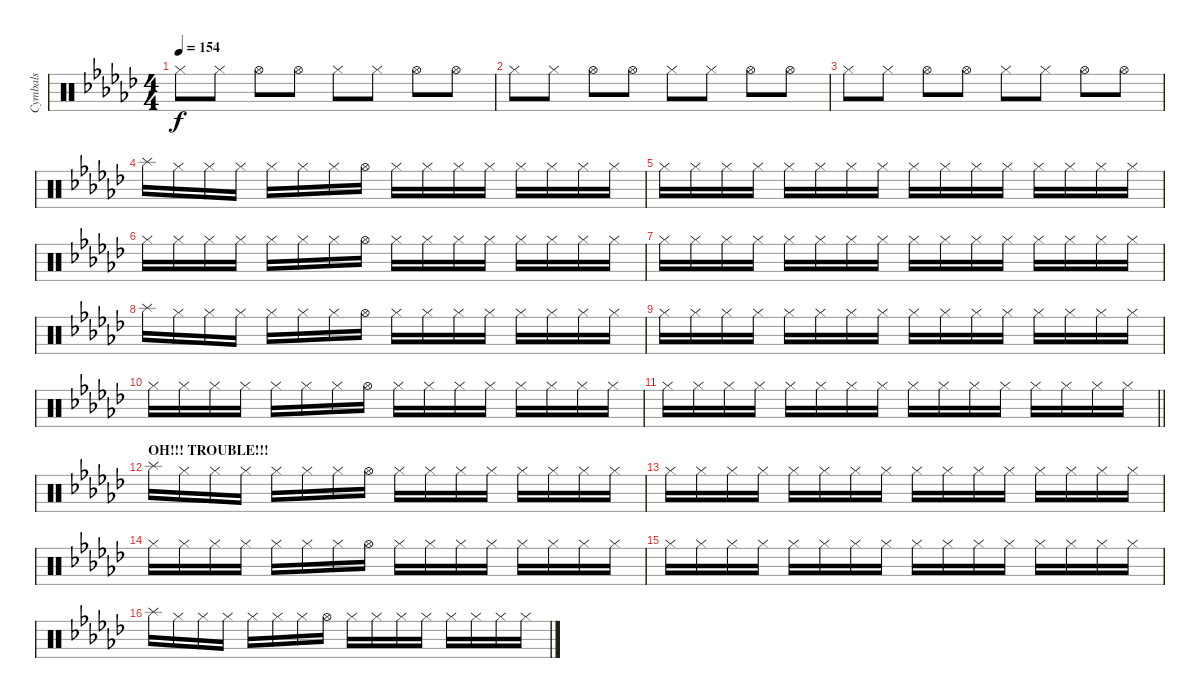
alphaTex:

\track ("Cymbals" "Cymbals") {instrument percussion}
\staff {score}
\articulation defaults
\ts (4 4)
\tempo 154
\clef neutral
\ks gb "Hi-Hat (closed)".8{dy f} "Hi-Hat (closed)".8 "Hi-Hat (open)".8 "Hi-Hat (open)".8 "Hi-Hat (closed)".8 "Hi-Hat (closed)".8 "Hi-Hat (open)".8 "Hi-Hat (open)".8
|
"Hi-Hat (closed)".8 "Hi-Hat (closed)".8 "Hi-Hat (open)".8 "Hi-Hat (open)".8 "Hi-Hat (closed)".8 "Hi-Hat (closed)".8 "Hi-Hat (open)".8 "Hi-Hat (open)".8 |
"Hi-Hat (closed)".8 "Hi-Hat (closed)".8 "Hi-Hat (open)".8 "Hi-Hat (open)".8 "Hi-Hat (closed)".8 "Hi-Hat (closed)".8 "Hi-Hat (open)".8 "Hi-Hat (open)".8 |
"Splash (hit)".16 "Hi-Hat (closed)".16 "Hi-Hat (closed)".16 "Hi-Hat (closed)".16 "Hi-Hat (closed)".16 "Hi-Hat (closed)".16 "Hi-Hat (closed)".16 "Hi-Hat (open)".16 "Hi-Hat (closed)".16 "Hi-Hat (closed)".16 "Hi-Hat (closed)".16 "Hi-Hat (closed)".16 "Hi-Hat (closed)".16 "Hi-Hat (closed)".16 "Hi-Hat (closed)".16 "Hi-Hat (closed)".16 |
"Hi-Hat (closed)".16 "Hi-Hat (closed)".16 "Hi-Hat (closed)".16 "Hi-Hat (closed)".16 "Hi-Hat (closed)".16 "Hi-Hat (closed)".16 "Hi-Hat (closed)".16 "Hi-Hat (closed)".16 "Hi-Hat (closed)".16 "Hi-Hat (closed)".16 "Hi-Hat (closed)".16 "Hi-Hat (closed)".16 "Hi-Hat (closed)".16 "Hi-Hat (closed)".16 "Hi-Hat (closed)".16 "Hi-Hat (closed)".16 |
"Hi-Hat (closed)".16 "Hi-Hat (closed)".16 "Hi-Hat (closed)".16 "Hi-Hat (closed)".16 "Hi-Hat (closed)".16 "Hi-Hat (closed)".16 "Hi-Hat (closed)".16 "Hi-Hat (open)".16 "Hi-Hat (closed)".16 "Hi-Hat (closed)".16 "Hi-Hat (closed)".16 "Hi-Hat (closed)".16 "Hi-Hat (closed)".16 "Hi-Hat (closed)".16 "Hi-Hat (closed)".16 "Hi-Hat (closed)".16 |
"Hi-Hat (closed)".16 "Hi-Hat (closed)".16 "Hi-Hat (closed)".16 "Hi-Hat (closed)".16 "Hi-Hat (closed)".16 "Hi-Hat (closed)".16 "Hi-Hat (closed)".16 "Hi-Hat (closed)".16 "Hi-Hat (closed)".16 "Hi-Hat (closed)".16 "Hi-Hat (closed)".16 "Hi-Hat (closed)".16 "Hi-Hat (closed)".16 "Hi-Hat (closed)".16 "Hi-Hat (closed)".16 "Hi-Hat (closed)".16 |
"Splash (hit)".16 "Hi-Hat (closed)".16 "Hi-Hat (closed)".16 "Hi-Hat (closed)".16 "Hi-Hat (closed)".16 "Hi-Hat (closed)".16 "Hi-Hat (closed)".16 "Hi-Hat (open)".16 "Hi-Hat (closed)".16 "Hi-Hat (closed)".16 "Hi-Hat (closed)".16 "Hi-Hat (closed)".16 "Hi-Hat (closed)".16 "Hi-Hat (closed)".16 "Hi-Hat (closed)".16 "Hi-Hat (closed)".16 |
"Hi-Hat (closed)".16 "Hi-Hat (closed)".16 "Hi-Hat (closed)".16 "Hi-Hat (closed)".16 "Hi-Hat (closed)".16 "Hi-Hat (closed)".16 "Hi-Hat (closed)".16 "Hi-Hat (closed)".16 "Hi-Hat (closed)".16 "Hi-Hat (closed)".16 "Hi-Hat (closed)".16 "Hi-Hat (closed)".16 "Hi-Hat (closed)".16 "Hi-Hat (closed)".16 "Hi-Hat (closed)".16 "Hi-Hat (closed)".16 |
"Hi-Hat (closed)".16 "Hi-Hat (closed)".16 "Hi-Hat (closed)".16 "Hi-Hat (closed)".16 "Hi-Hat (closed)".16 "Hi-Hat (closed)".16 "Hi-Hat (closed)".16 "Hi-Hat (open)".16 "Hi-Hat (closed)".16 "Hi-Hat (closed)".16 "Hi-Hat (closed)".16 "Hi-Hat (closed)".16 "Hi-Hat (closed)".16 "Hi-Hat (closed)".16 "Hi-Hat (closed)".16 "Hi-Hat (closed)".16 |
\barLineRight lightlight "Hi-Hat (closed)".16 "Hi-Hat (closed)".16 "Hi-Hat (closed)".16 "Hi-Hat (closed)".16 "Hi-Hat (closed)".16 "Hi-Hat (closed)".16 "Hi-Hat (closed)".16 "Hi-Hat (closed)".16 "Hi-Hat (closed)".16 "Hi-Hat (closed)".16 "Hi-Hat (closed)".16 "Hi-Hat (closed)".16 "Hi-Hat (closed)".16 "Hi-Hat (closed)".16 "Hi-Hat (closed)".16 "Hi-Hat (closed)".16
|
\section ("" "OH!!! TROUBLE!!!")
"Splash (hit)".16 "Hi-Hat (closed)".16 "Hi-Hat (closed)".16 "Hi-Hat (closed)".16 "Hi-Hat (closed)".16 "Hi-Hat (closed)".16 "Hi-Hat (closed)".16 "Hi-Hat (open)".16 "Hi-Hat (closed)".16 "Hi-Hat (closed)".16 "Hi-Hat (closed)".16 "Hi-Hat (closed)".16 "Hi-Hat (closed)".16 "Hi-Hat (closed)".16 "Hi-Hat (closed)".16 "Hi-Hat (closed)".16 |
"Hi-Hat (closed)".16 "Hi-Hat (closed)".16 "Hi-Hat (closed)".16 "Hi-Hat (closed)".16 "Hi-Hat (closed)".16 "Hi-Hat (closed)".16 "Hi-Hat (closed)".16 "Hi-Hat (closed)".16 "Hi-Hat (closed)".16 "Hi-Hat (closed)".16 "Hi-Hat (closed)".16 "Hi-Hat (closed)".16 "Hi-Hat (closed)".16 "Hi-Hat (closed)".16 "Hi-Hat (closed)".16 "Hi-Hat (closed)".16 |
"Hi-Hat (closed)".16 "Hi-Hat (closed)".16 "Hi-Hat (closed)".16 "Hi-Hat (closed)".16 "Hi-Hat (closed)".16 "Hi-Hat (closed)".16 "Hi-Hat (closed)".16 "Hi-Hat (open)".16 "Hi-Hat (closed)".16 "Hi-Hat (closed)".16 "Hi-Hat (closed)".16 "Hi-Hat (closed)".16 "Hi-Hat (closed)".16 "Hi-Hat (closed)".16 "Hi-Hat (closed)".16 "Hi-Hat (closed)".16 |
"Hi-Hat (closed)".16 "Hi-Hat (closed)".16 "Hi-Hat (closed)".16 "Hi-Hat (closed)".16 "Hi-Hat (closed)".16 "Hi-Hat (closed)".16 "Hi-Hat (closed)".16 "Hi-Hat (closed)".16 "Hi-Hat (closed)".16 "Hi-Hat (closed)".16 "Hi-Hat (closed)".16 "Hi-Hat (closed)".16 "Hi-Hat (closed)".16 "Hi-Hat (closed)".16 "Hi-Hat (closed)".16 "Hi-Hat (closed)".16 |
"Splash (hit)".16 "Hi-Hat (closed)".16 "Hi-Hat (closed)".16 "Hi-Hat (closed)".16 "Hi-Hat (closed)".16 "Hi-Hat (closed)".16 "Hi-Hat (closed)".16 "Hi-Hat (open)".16 "Hi-Hat (closed)".16 "Hi-Hat (closed)".16 "Hi-Hat (closed)".16 "Hi-Hat (closed)".16 "Hi-Hat (closed)".16 "Hi-Hat (closed)".16 "Hi-Hat (closed)".16 "Hi-Hat (closed)".16
